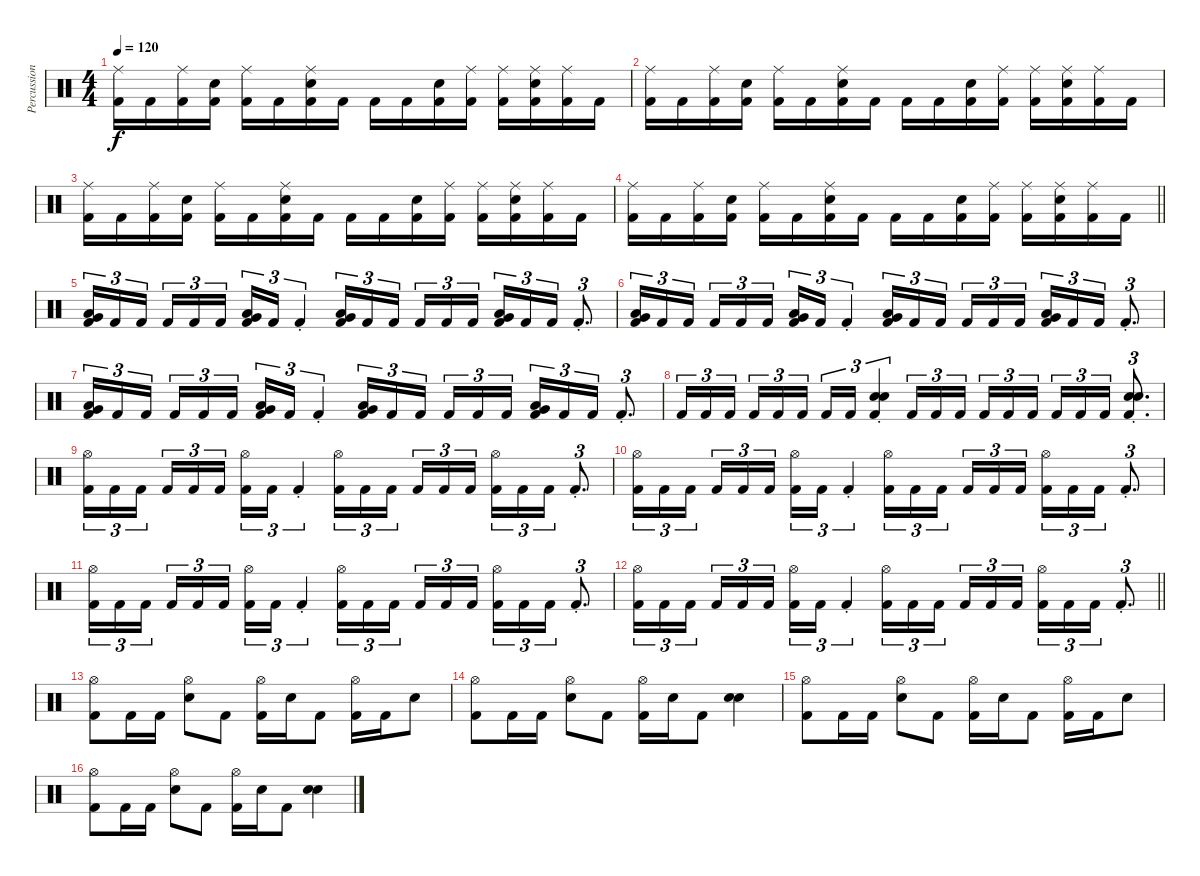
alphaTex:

\track ("Percussion" "Percussion") {instrument percussion}
\staff {score}
\articulation defaults
\ts (4 4)
\tempo 120
\clef neutral
\ks c
("Ride (middle)" "Kick (hit) 2").16{dy f} "Kick (hit) 2".16 ("Ride (middle)" "Kick (hit) 2").16 ("Electric Snare (hit)" "Kick (hit) 2").16 ("Ride (middle)" "Kick (hit) 2").16 "Kick (hit) 2".16 ("Ride (middle)" "Electric Snare (hit)" "Kick (hit) 2").16 "Kick (hit) 2".16 "Kick (hit) 2".16 "Kick (hit) 2".16 ("Electric Snare (hit)" "Kick (hit) 2").16 ("Ride (middle)" "Kick (hit) 2").16 ("Ride (middle)" "Kick (hit) 2").16 ("Ride (middle)" "Electric Snare (hit)" "Kick (hit) 2").16 ("Ride (middle)" "Kick (hit) 2").16 "Kick (hit) 2".16 |
("Ride (middle)" "Kick (hit) 2").16 "Kick (hit) 2".16 ("Ride (middle)" "Kick (hit) 2").16 ("Electric Snare (hit)" "Kick (hit) 2").16 ("Ride (middle)" "Kick (hit) 2").16 "Kick (hit) 2".16 ("Ride (middle)" "Electric Snare (hit)" "Kick (hit) 2").16 "Kick (hit) 2".16 "Kick (hit) 2".16 "Kick (hit) 2".16 ("Electric Snare (hit)" "Kick (hit) 2").16 ("Ride (middle)" "Kick (hit) 2").16 ("Ride (middle)" "Kick (hit) 2").16 ("Ride (middle)" "Electric Snare (hit)" "Kick (hit) 2").16 ("Ride (middle)" "Kick (hit) 2").16 "Kick (hit) 2".16 |
("Ride (middle)" "Kick (hit) 2").16 "Kick (hit) 2".16 ("Ride (middle)" "Kick (hit) 2").16 ("Electric Snare (hit)" "Kick (hit) 2").16 ("Ride (middle)" "Kick (hit) 2").16 "Kick (hit) 2".16 ("Ride (middle)" "Electric Snare (hit)" "Kick (hit) 2").16 "Kick (hit) 2".16 "Kick (hit) 2".16 "Kick (hit) 2".16 ("Electric Snare (hit)" "Kick (hit) 2").16 ("Ride (middle)" "Kick (hit) 2").16 ("Ride (middle)" "Kick (hit) 2").16 ("Ride (middle)" "Electric Snare (hit)" "Kick (hit) 2").16 ("Ride (middle)" "Kick (hit) 2").16 "Kick (hit) 2".16 |
\barLineRight lightlight
("Ride (middle)" "Kick (hit) 2").16 "Kick (hit) 2".16 ("Ride (middle)" "Kick (hit) 2").16 ("Electric Snare (hit)" "Kick (hit) 2").16 ("Ride (middle)" "Kick (hit) 2").16 "Kick (hit) 2".16 ("Ride (middle)" "Electric Snare (hit)" "Kick (hit) 2").16 "Kick (hit) 2".16 "Kick (hit) 2".16 "Kick (hit) 2".16 ("Electric Snare (hit)" "Kick (hit) 2").16 ("Ride (middle)" "Kick (hit) 2").16 ("Ride (middle)" "Kick (hit) 2").16 ("Ride (middle)" "Electric Snare (hit)" "Kick (hit) 2").16 ("Ride (middle)" "Kick (hit) 2").16 "Kick (hit) 2".16 |
("Low Tom (hit)" "Very Low Tom (hit)" "Kick (hit) 2").16{tu (3 2)} "Kick (hit) 2".16{tu (3 2)} "Kick (hit) 2".16{tu (3 2) beam splitsecondary} "Kick (hit) 2".16{tu (3 2)} "Kick (hit) 2".16{tu (3 2)} "Kick (hit) 2".16{tu (3 2)} ("Low Tom (hit)" "Very Low Tom (hit)" "Kick (hit) 2").16{tu (3 2)} "Kick (hit) 2".16{tu (3 2)} "Kick (hit) 2"{st}.4{tu (3 2)} ("Low Tom (hit)" "Very Low Tom (hit)" "Kick (hit) 2").16{tu (3 2)} "Kick (hit) 2".16{tu (3 2)} "Kick (hit) 2".16{tu (3 2) beam splitsecondary} "Kick (hit) 2".16{tu (3 2)} "Kick (hit) 2".16{tu (3 2)} "Kick (hit) 2".16{tu (3 2)} ("Low Tom (hit)" "Very Low Tom (hit)" "Kick (hit) 2").16{tu (3 2)} "Kick (hit) 2".16{tu (3 2)} "Kick (hit) 2".16{tu (3 2)} "Kick (hit) 2"{st}.8{d tu (3 2)} |
("Low Tom (hit)" "Very Low Tom (hit)" "Kick (hit) 2").16{tu (3 2)} "Kick (hit) 2".16{tu (3 2)} "Kick (hit) 2".16{tu (3 2) beam splitsecondary} "Kick (hit) 2".16{tu (3 2)} "Kick (hit) 2".16{tu (3 2)} "Kick (hit) 2".16{tu (3 2)} ("Low Tom (hit)" "Very Low Tom (hit)" "Kick (hit) 2").16{tu (3 2)} "Kick (hit) 2".16{tu (3 2)} "Kick (hit) 2"{st}.4{tu (3 2)} ("Low Tom (hit)" "Very Low Tom (hit)" "Kick (hit) 2").16{tu (3 2)} "Kick (hit) 2".16{tu (3 2)} "Kick (hit) 2".16{tu (3 2) beam splitsecondary} "Kick (hit) 2".16{tu (3 2)} "Kick (hit) 2".16{tu (3 2)} "Kick (hit) 2".16{tu (3 2)} ("Low Tom (hit)" "Very Low Tom (hit)" "Kick (hit) 2").16{tu (3 2)} "Kick (hit) 2".16{tu (3 2)} "Kick (hit) 2".16{tu (3 2)} "Kick (hit) 2"{st}.8{d tu (3 2)} |
("Low Tom (hit)" "Very Low Tom (hit)" "Kick (hit) 2").16{tu (3 2)} "Kick (hit) 2".16{tu (3 2)} "Kick (hit) 2".16{tu (3 2) beam splitsecondary} "Kick (hit) 2".16{tu (3 2)} "Kick (hit) 2".16{tu (3 2)} "Kick (hit) 2".16{tu (3 2)} ("Low Tom (hit)" "Very Low Tom (hit)" "Kick (hit) 2").16{tu (3 2)} "Kick (hit) 2".16{tu (3 2)} "Kick (hit) 2"{st}.4{tu (3 2)} ("Low Tom (hit)" "Very Low Tom (hit)" "Kick (hit) 2").16{tu (3 2)} "Kick (hit) 2".16{tu (3 2)} "Kick (hit) 2".16{tu (3 2) beam splitsecondary} "Kick (hit) 2".16{tu (3 2)} "Kick (hit) 2".16{tu (3 2)} "Kick (hit) 2".16{tu (3 2)} ("Low Tom (hit)" "Very Low Tom (hit)" "Kick (hit) 2").16{tu (3 2)} "Kick (hit) 2".16{tu (3 2)} "Kick (hit) 2".16{tu (3 2)} "Kick (hit) 2"{st}.8{d tu (3 2)} |
"Kick (hit) 2".16{tu (3 2)} "Kick (hit) 2".16{tu (3 2)} "Kick (hit) 2".16{tu (3 2) beam splitsecondary} "Kick (hit) 2".16{tu (3 2)} "Kick (hit) 2".16{tu (3 2)} "Kick (hit) 2".16{tu (3 2)} "Kick (hit) 2".16{tu (3 2)} "Kick (hit) 2".16{tu (3 2)} ("Electric Snare (hit)" "Electric Snare (hit)" "Kick (hit) 2"{st}).4{tu (3 2) bd 240} "Kick (hit) 2".16{tu (3 2)} "Kick (hit) 2".16{tu (3 2)} "Kick (hit) 2".16{tu (3 2) beam splitsecondary} "Kick (hit) 2".16{tu (3 2)} "Kick (hit) 2".16{tu (3 2)} "Kick (hit) 2".16{tu (3 2)} "Kick (hit) 2".16{tu (3 2)} "Kick (hit) 2".16{tu (3 2)} "Kick (hit) 2".16{tu (3 2)} ("Electric Snare (hit)" "Electric Snare (hit)" "Kick (hit) 2"{st}).8{d tu (3 2) bd 240} |
("Hi-Hat (open)" "Kick (hit) 2").16{tu (3 2)} "Kick (hit) 2".16{tu (3 2)} "Kick (hit) 2".16{tu (3 2) beam splitsecondary} "Kick (hit) 2".16{tu (3 2)} "Kick (hit) 2".16{tu (3 2)} "Kick (hit) 2".16{tu (3 2)} ("Hi-Hat (open)" "Kick (hit) 2").16{tu (3 2)} "Kick (hit) 2".16{tu (3 2)} "Kick (hit) 2"{st}.4{tu (3 2)} ("Hi-Hat (open)" "Kick (hit) 2").16{tu (3 2)} "Kick (hit) 2".16{tu (3 2)} "Kick (hit) 2".16{tu (3 2) beam splitsecondary} "Kick (hit) 2".16{tu (3 2)} "Kick (hit) 2".16{tu (3 2)} "Kick (hit) 2".16{tu (3 2)} ("Hi-Hat (open)" "Kick (hit) 2").16{tu (3 2)} "Kick (hit) 2".16{tu (3 2)} "Kick (hit) 2".16{tu (3 2)} "Kick (hit) 2"{st}.8{d tu (3 2)} |
("Hi-Hat (open)" "Kick (hit) 2").16{tu (3 2)} "Kick (hit) 2".16{tu (3 2)} "Kick (hit) 2".16{tu (3 2) beam splitsecondary} "Kick (hit) 2".16{tu (3 2)} "Kick (hit) 2".16{tu (3 2)} "Kick (hit) 2".16{tu (3 2)} ("Hi-Hat (open)" "Kick (hit) 2").16{tu (3 2)} "Kick (hit) 2".16{tu (3 2)} "Kick (hit) 2"{st}.4{tu (3 2)} ("Hi-Hat (open)" "Kick (hit) 2").16{tu (3 2)} "Kick (hit) 2".16{tu (3 2)} "Kick (hit) 2".16{tu (3 2) beam splitsecondary} "Kick (hit) 2".16{tu (3 2)} "Kick (hit) 2".16{tu (3 2)} "Kick (hit) 2".16{tu (3 2)} ("Hi-Hat (open)" "Kick (hit) 2").16{tu (3 2)} "Kick (hit) 2".16{tu (3 2)} "Kick (hit) 2".16{tu (3 2)} "Kick (hit) 2"{st}.8{d tu (3 2)} |
("Hi-Hat (open)" "Kick (hit) 2").16{tu (3 2)} "Kick (hit) 2".16{tu (3 2)} "Kick (hit) 2".16{tu (3 2) beam splitsecondary} "Kick (hit) 2".16{tu (3 2)} "Kick (hit) 2".16{tu (3 2)} "Kick (hit) 2".16{tu (3 2)} ("Hi-Hat (open)" "Kick (hit) 2").16{tu (3 2)} "Kick (hit) 2".16{tu (3 2)} "Kick (hit) 2"{st}.4{tu (3 2)} ("Hi-Hat (open)" "Kick (hit) 2").16{tu (3 2)} "Kick (hit) 2".16{tu (3 2)} "Kick (hit) 2".16{tu (3 2) beam splitsecondary} "Kick (hit) 2".16{tu (3 2)} "Kick (hit) 2".16{tu (3 2)} "Kick (hit) 2".16{tu (3 2)} ("Hi-Hat (open)" "Kick (hit) 2").16{tu (3 2)} "Kick (hit) 2".16{tu (3 2)} "Kick (hit) 2".16{tu (3 2)} "Kick (hit) 2"{st}.8{d tu (3 2)} |
\barLineRight lightlight
("Hi-Hat (open)" "Kick (hit) 2").16{tu (3 2)} "Kick (hit) 2".16{tu (3 2)} "Kick (hit) 2".16{tu (3 2) beam splitsecondary} "Kick (hit) 2".16{tu (3 2)} "Kick (hit) 2".16{tu (3 2)} "Kick (hit) 2".16{tu (3 2)} ("Hi-Hat (open)" "Kick (hit) 2").16{tu (3 2)} "Kick (hit) 2".16{tu (3 2)} "Kick (hit) 2"{st}.4{tu (3 2)} ("Hi-Hat (open)" "Kick (hit) 2").16{tu (3 2)} "Kick (hit) 2".16{tu (3 2)} "Kick (hit) 2".16{tu (3 2) beam splitsecondary} "Kick (hit) 2".16{tu (3 2)} "Kick (hit) 2".16{tu (3 2)} "Kick (hit) 2".16{tu (3 2)} ("Hi-Hat (open)" "Kick (hit) 2").16{tu (3 2)} "Kick (hit) 2".16{tu (3 2)} "Kick (hit) 2".16{tu (3 2)} "Kick (hit) 2"{st}.8{d tu (3 2)} |
("Hi-Hat (open)" "Kick (hit) 2").8 "Kick (hit) 2".16 "Kick (hit) 2".16 ("Hi-Hat (open)" "Electric Snare (hit)").8 "Kick (hit) 2".8 ("Hi-Hat (open)" "Kick (hit) 2").16 "Electric Snare (hit)".16 "Kick (hit) 2".8 ("Hi-Hat (open)" "Kick (hit) 2").16 "Kick (hit) 2".16 "Electric Snare (hit)".8 |
("Hi-Hat (open)" "Kick (hit) 2").8 "Kick (hit) 2".16 "Kick (hit) 2".16 ("Hi-Hat (open)" "Electric Snare (hit)").8 "Kick (hit) 2".8 ("Hi-Hat (open)" "Kick (hit) 2").16 "Electric Snare (hit)".16 "Kick (hit) 2".8 ("Electric Snare (hit)" "Electric Snare (hit)").4{bd 480} |
("Hi-Hat (open)" "Kick (hit) 2").8 "Kick (hit) 2".16 "Kick (hit) 2".16 ("Hi-Hat (open)" "Electric Snare (hit)").8 "Kick (hit) 2".8 ("Hi-Hat (open)" "Kick (hit) 2").16 "Electric Snare (hit)".16 "Kick (hit) 2".8 ("Hi-Hat (open)" "Kick (hit) 2").16 "Kick (hit) 2".16 "Electric Snare (hit)".8 |
("Hi-Hat (open)" "Kick (hit) 2").8 "Kick (hit) 2".16 "Kick (hit) 2".16 ("Hi-Hat (open)" "Electric Snare (hit)").8 "Kick (hit) 2".8 ("Hi-Hat (open)" "Kick (hit) 2").16 "Electric Snare (hit)".16 "Kick (hit) 2".8 ("Electric Snare (hit)" "Electric Snare (hit)").4{bd 480}
